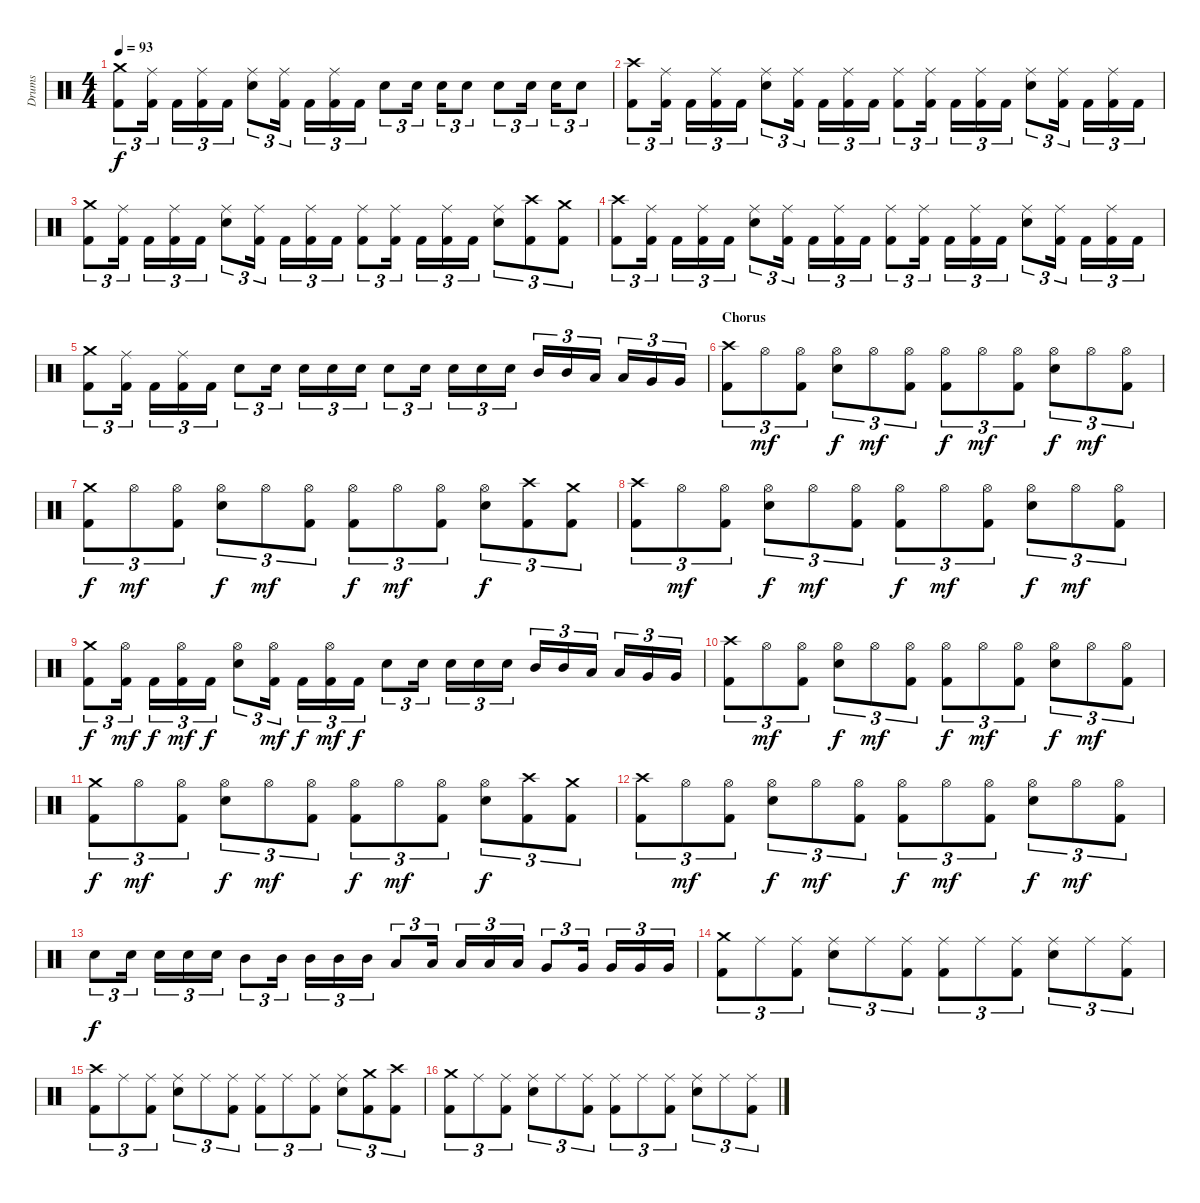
\track ("Drums" "Drums") {instrument percussion}
\staff {score}
\articulation defaults
\ts (4 4)
\tempo 93
\clef neutral
\ks c
("Crash medium (hit)" "Kick (hit) 2").8{tu (3 2) dy f} ("Ride (middle)" "Kick (hit) 2").16{tu (3 2)} "Kick (hit) 2".16{tu (3 2)} ("Ride (middle)" "Kick (hit) 2").16{tu (3 2)} "Kick (hit) 2".16{tu (3 2)} ("Ride (middle)" "Snare (hit) 2").8{tu (3 2)} ("Ride (middle)" "Kick (hit) 2").16{tu (3 2)} "Kick (hit) 2".16{tu (3 2)} ("Ride (middle)" "Kick (hit) 2").16{tu (3 2)} "Kick (hit) 2".16{tu (3 2)} "Snare (hit) 2".8{tu (3 2)} "Snare (hit) 2".16{tu (3 2)} "Snare (hit) 2".16{tu (3 2)} "Snare (hit) 2".8{tu (3 2)} "Snare (hit) 2".8{tu (3 2)} "Snare (hit) 2".16{tu (3 2)} "Snare (hit) 2".16{tu (3 2)} "Snare (hit) 2".8{tu (3 2)} |
("Crash high (hit)" "Kick (hit) 2").8{tu (3 2)} ("Ride (middle)" "Kick (hit) 2").16{tu (3 2)} "Kick (hit) 2".16{tu (3 2)} ("Ride (middle)" "Kick (hit) 2").16{tu (3 2)} "Kick (hit) 2".16{tu (3 2)} ("Ride (middle)" "Snare (hit) 2").8{tu (3 2)} ("Ride (middle)" "Kick (hit) 2").16{tu (3 2)} "Kick (hit) 2".16{tu (3 2)} ("Ride (middle)" "Kick (hit) 2").16{tu (3 2)} "Kick (hit) 2".16{tu (3 2)} ("Ride (middle)" "Kick (hit) 2").8{tu (3 2)} ("Ride (middle)" "Kick (hit) 2").16{tu (3 2)} "Kick (hit) 2".16{tu (3 2)} ("Ride (middle)" "Kick (hit) 2").16{tu (3 2)} "Kick (hit) 2".16{tu (3 2)} ("Ride (middle)" "Snare (hit) 2").8{tu (3 2)} ("Ride (middle)" "Kick (hit) 2").16{tu (3 2)} "Kick (hit) 2".16{tu (3 2)} ("Ride (middle)" "Kick (hit) 2").16{tu (3 2)} "Kick (hit) 2".16{tu (3 2)} |
("Crash medium (hit)" "Kick (hit) 2").8{tu (3 2)} ("Ride (middle)" "Kick (hit) 2").16{tu (3 2)} "Kick (hit) 2".16{tu (3 2)} ("Ride (middle)" "Kick (hit) 2").16{tu (3 2)} "Kick (hit) 2".16{tu (3 2)} ("Ride (middle)" "Snare (hit) 2").8{tu (3 2)} ("Ride (middle)" "Kick (hit) 2").16{tu (3 2)} "Kick (hit) 2".16{tu (3 2)} ("Ride (middle)" "Kick (hit) 2").16{tu (3 2)} "Kick (hit) 2".16{tu (3 2)} ("Ride (middle)" "Kick (hit) 2").8{tu (3 2)} ("Ride (middle)" "Kick (hit) 2").16{tu (3 2)} "Kick (hit) 2".16{tu (3 2)} ("Ride (middle)" "Kick (hit) 2").16{tu (3 2)} "Kick (hit) 2".16{tu (3 2)} ("Ride (middle)" "Snare (hit) 2").8{tu (3 2)} ("Crash high (hit)" "Kick (hit) 2").8{tu (3 2)} ("Crash medium (hit)" "Kick (hit) 2").8{tu (3 2)} |
("Crash high (hit)" "Kick (hit) 2").8{tu (3 2)} ("Ride (middle)" "Kick (hit) 2").16{tu (3 2)} "Kick (hit) 2".16{tu (3 2)} ("Ride (middle)" "Kick (hit) 2").16{tu (3 2)} "Kick (hit) 2".16{tu (3 2)} ("Ride (middle)" "Snare (hit) 2").8{tu (3 2)} ("Ride (middle)" "Kick (hit) 2").16{tu (3 2)} "Kick (hit) 2".16{tu (3 2)} ("Ride (middle)" "Kick (hit) 2").16{tu (3 2)} "Kick (hit) 2".16{tu (3 2)} ("Ride (middle)" "Kick (hit) 2").8{tu (3 2)} ("Ride (middle)" "Kick (hit) 2").16{tu (3 2)} "Kick (hit) 2".16{tu (3 2)} ("Ride (middle)" "Kick (hit) 2").16{tu (3 2)} "Kick (hit) 2".16{tu (3 2)} ("Ride (middle)" "Snare (hit) 2").8{tu (3 2)} ("Ride (middle)" "Kick (hit) 2").16{tu (3 2)} "Kick (hit) 2".16{tu (3 2)} ("Ride (middle)" "Kick (hit) 2").16{tu (3 2)} "Kick (hit) 2".16{tu (3 2)} |
("Crash medium (hit)" "Kick (hit) 2").8{tu (3 2)} ("Ride (middle)" "Kick (hit) 2").16{tu (3 2)} "Kick (hit) 2".16{tu (3 2)} ("Ride (middle)" "Kick (hit) 2").16{tu (3 2)} "Kick (hit) 2".16{tu (3 2)} "Snare (hit) 2".8{tu (3 2)} "Snare (hit) 2".16{tu (3 2)} "Snare (hit) 2".16{tu (3 2)} "Snare (hit) 2".16{tu (3 2)} "Snare (hit) 2".16{tu (3 2)} "Snare (hit) 2".8{tu (3 2)} "Snare (hit) 2".16{tu (3 2)} "Snare (hit) 2".16{tu (3 2)} "Snare (hit) 2".16{tu (3 2)} "Snare (hit) 2".16{tu (3 2)} "Mid Tom (hit)".16{tu (3 2)} "Mid Tom (hit)".16{tu (3 2)} "Low Tom (hit)".16{tu (3 2)} "Low Tom (hit)".16{tu (3 2)} "Very Low Tom (hit)".16{tu (3 2)} "Very Low Tom (hit)".16{tu (3 2)} |
\section ("" "Chorus")
("Crash high (hit)" "Kick (hit) 2").8{tu (3 2)} "Hi-Hat (open)".8{tu (3 2) dy mf} ("Hi-Hat (open)" "Kick (hit) 2").8{tu (3 2)} ("Hi-Hat (open)" "Snare (hit) 2").8{tu (3 2) dy f} "Hi-Hat (open)".8{tu (3 2) dy mf} ("Hi-Hat (open)" "Kick (hit) 2").8{tu (3 2)} ("Hi-Hat (open)" "Kick (hit) 2").8{tu (3 2) dy f} "Hi-Hat (open)".8{tu (3 2) dy mf} ("Hi-Hat (open)" "Kick (hit) 2").8{tu (3 2)} ("Hi-Hat (open)" "Snare (hit) 2").8{tu (3 2) dy f} "Hi-Hat (open)".8{tu (3 2) dy mf} ("Hi-Hat (open)" "Kick (hit) 2").8{tu (3 2)} |
("Crash medium (hit)" "Kick (hit) 2").8{tu (3 2) dy f} "Hi-Hat (open)".8{tu (3 2) dy mf} ("Hi-Hat (open)" "Kick (hit) 2").8{tu (3 2)} ("Hi-Hat (open)" "Snare (hit) 2").8{tu (3 2) dy f} "Hi-Hat (open)".8{tu (3 2) dy mf} ("Hi-Hat (open)" "Kick (hit) 2").8{tu (3 2)} ("Hi-Hat (open)" "Kick (hit) 2").8{tu (3 2) dy f} "Hi-Hat (open)".8{tu (3 2) dy mf} ("Hi-Hat (open)" "Kick (hit) 2").8{tu (3 2)} ("Hi-Hat (open)" "Snare (hit) 2").8{tu (3 2) dy f} ("Crash high (hit)" "Kick (hit) 2").8{tu (3 2)} ("Crash medium (hit)" "Kick (hit) 2").8{tu (3 2)} |
("Crash high (hit)" "Kick (hit) 2").8{tu (3 2)} "Hi-Hat (open)".8{tu (3 2) dy mf} ("Hi-Hat (open)" "Kick (hit) 2").8{tu (3 2)} ("Hi-Hat (open)" "Snare (hit) 2").8{tu (3 2) dy f} "Hi-Hat (open)".8{tu (3 2) dy mf} ("Hi-Hat (open)" "Kick (hit) 2").8{tu (3 2)} ("Hi-Hat (open)" "Kick (hit) 2").8{tu (3 2) dy f} "Hi-Hat (open)".8{tu (3 2) dy mf} ("Hi-Hat (open)" "Kick (hit) 2").8{tu (3 2)} ("Hi-Hat (open)" "Snare (hit) 2").8{tu (3 2) dy f} "Hi-Hat (open)".8{tu (3 2) dy mf} ("Hi-Hat (open)" "Kick (hit) 2").8{tu (3 2)} |
("Crash medium (hit)" "Kick (hit) 2").8{tu (3 2) dy f} ("Hi-Hat (open)" "Kick (hit) 2").16{tu (3 2) dy mf} "Kick (hit) 2".16{tu (3 2) dy f} ("Hi-Hat (open)" "Kick (hit) 2").16{tu (3 2) dy mf} "Kick (hit) 2".16{tu (3 2) dy f} ("Hi-Hat (open)" "Snare (hit) 2").8{tu (3 2)} ("Hi-Hat (open)" "Kick (hit) 2").16{tu (3 2) dy mf} "Kick (hit) 2".16{tu (3 2) dy f} ("Hi-Hat (open)" "Kick (hit) 2").16{tu (3 2) dy mf} "Kick (hit) 2".16{tu (3 2) dy f} "Snare (hit) 2".8{tu (3 2)} "Snare (hit) 2".16{tu (3 2)} "Snare (hit) 2".16{tu (3 2)} "Snare (hit) 2".16{tu (3 2)} "Snare (hit) 2".16{tu (3 2)} "Mid Tom (hit)".16{tu (3 2)} "Mid Tom (hit)".16{tu (3 2)} "Low Tom (hit)".16{tu (3 2)} "Low Tom (hit)".16{tu (3 2)} "Very Low Tom (hit)".16{tu (3 2)} "Very Low Tom (hit)".16{tu (3 2)} |
("Crash high (hit)" "Kick (hit) 2").8{tu (3 2)} "Hi-Hat (open)".8{tu (3 2) dy mf} ("Hi-Hat (open)" "Kick (hit) 2").8{tu (3 2)} ("Hi-Hat (open)" "Snare (hit) 2").8{tu (3 2) dy f} "Hi-Hat (open)".8{tu (3 2) dy mf} ("Hi-Hat (open)" "Kick (hit) 2").8{tu (3 2)} ("Hi-Hat (open)" "Kick (hit) 2").8{tu (3 2) dy f} "Hi-Hat (open)".8{tu (3 2) dy mf} ("Hi-Hat (open)" "Kick (hit) 2").8{tu (3 2)} ("Hi-Hat (open)" "Snare (hit) 2").8{tu (3 2) dy f} "Hi-Hat (open)".8{tu (3 2) dy mf} ("Hi-Hat (open)" "Kick (hit) 2").8{tu (3 2)} |
("Crash medium (hit)" "Kick (hit) 2").8{tu (3 2) dy f} "Hi-Hat (open)".8{tu (3 2) dy mf} ("Hi-Hat (open)" "Kick (hit) 2").8{tu (3 2)} ("Hi-Hat (open)" "Snare (hit) 2").8{tu (3 2) dy f} "Hi-Hat (open)".8{tu (3 2) dy mf} ("Hi-Hat (open)" "Kick (hit) 2").8{tu (3 2)} ("Hi-Hat (open)" "Kick (hit) 2").8{tu (3 2) dy f} "Hi-Hat (open)".8{tu (3 2) dy mf} ("Hi-Hat (open)" "Kick (hit) 2").8{tu (3 2)} ("Hi-Hat (open)" "Snare (hit) 2").8{tu (3 2) dy f} ("Crash high (hit)" "Kick (hit) 2").8{tu (3 2)} ("Crash medium (hit)" "Kick (hit) 2").8{tu (3 2)} |
("Crash high (hit)" "Kick (hit) 2").8{tu (3 2)} "Hi-Hat (open)".8{tu (3 2) dy mf} ("Hi-Hat (open)" "Kick (hit) 2").8{tu (3 2)} ("Hi-Hat (open)" "Snare (hit) 2").8{tu (3 2) dy f} "Hi-Hat (open)".8{tu (3 2) dy mf} ("Hi-Hat (open)" "Kick (hit) 2").8{tu (3 2)} ("Hi-Hat (open)" "Kick (hit) 2").8{tu (3 2) dy f} "Hi-Hat (open)".8{tu (3 2) dy mf} ("Hi-Hat (open)" "Kick (hit) 2").8{tu (3 2)} ("Hi-Hat (open)" "Snare (hit) 2").8{tu (3 2) dy f} "Hi-Hat (open)".8{tu (3 2) dy mf} ("Hi-Hat (open)" "Kick (hit) 2").8{tu (3 2)} |
"Snare (hit) 2".8{tu (3 2) dy f} "Snare (hit) 2".16{tu (3 2)} "Snare (hit) 2".16{tu (3 2)} "Snare (hit) 2".16{tu (3 2)} "Snare (hit) 2".16{tu (3 2)} "Mid Tom (hit)".8{tu (3 2)} "Mid Tom (hit)".16{tu (3 2)} "Mid Tom (hit)".16{tu (3 2)} "Mid Tom (hit)".16{tu (3 2)} "Mid Tom (hit)".16{tu (3 2)} "Low Tom (hit)".8{tu (3 2)} "Low Tom (hit)".16{tu (3 2)} "Low Tom (hit)".16{tu (3 2)} "Low Tom (hit)".16{tu (3 2)} "Low Tom (hit)".16{tu (3 2)} "Very Low Tom (hit)".8{tu (3 2)} "Very Low Tom (hit)".16{tu (3 2)} "Very Low Tom (hit)".16{tu (3 2)} "Very Low Tom (hit)".16{tu (3 2)} "Very Low Tom (hit)".16{tu (3 2)} |
("Crash medium (hit)" "Kick (hit) 2").8{tu (3 2)} "Ride (middle)".8{tu (3 2)} ("Ride (middle)" "Kick (hit) 2").8{tu (3 2)} ("Ride (middle)" "Snare (hit) 2").8{tu (3 2)} "Ride (middle)".8{tu (3 2)} ("Ride (middle)" "Kick (hit) 2").8{tu (3 2)} ("Ride (middle)" "Kick (hit) 2").8{tu (3 2)} "Ride (middle)".8{tu (3 2)} ("Ride (middle)" "Kick (hit) 2").8{tu (3 2)} ("Ride (middle)" "Snare (hit) 2").8{tu (3 2)} "Ride (middle)".8{tu (3 2)} ("Ride (middle)" "Kick (hit) 2").8{tu (3 2)} |
("Crash high (hit)" "Kick (hit) 2").8{tu (3 2)} "Ride (middle)".8{tu (3 2)} ("Ride (middle)" "Kick (hit) 2").8{tu (3 2)} ("Ride (middle)" "Snare (hit) 2").8{tu (3 2)} "Ride (middle)".8{tu (3 2)} ("Ride (middle)" "Kick (hit) 2").8{tu (3 2)} ("Ride (middle)" "Kick (hit) 2").8{tu (3 2)} "Ride (middle)".8{tu (3 2)} ("Ride (middle)" "Kick (hit) 2").8{tu (3 2)} ("Ride (middle)" "Snare (hit) 2").8{tu (3 2)} ("Crash medium (hit)" "Kick (hit) 2").8{tu (3 2)} ("Crash high (hit)" "Kick (hit) 2").8{tu (3 2)} |
("Crash medium (hit)" "Kick (hit) 2").8{tu (3 2)} "Ride (middle)".8{tu (3 2)} ("Ride (middle)" "Kick (hit) 2").8{tu (3 2)} ("Ride (middle)" "Snare (hit) 2").8{tu (3 2)} "Ride (middle)".8{tu (3 2)} ("Ride (middle)" "Kick (hit) 2").8{tu (3 2)} ("Ride (middle)" "Kick (hit) 2").8{tu (3 2)} "Ride (middle)".8{tu (3 2)} ("Ride (middle)" "Kick (hit) 2").8{tu (3 2)} ("Ride (middle)" "Snare (hit) 2").8{tu (3 2)} "Ride (middle)".8{tu (3 2)} ("Ride (middle)" "Kick (hit) 2").8{tu (3 2)}
